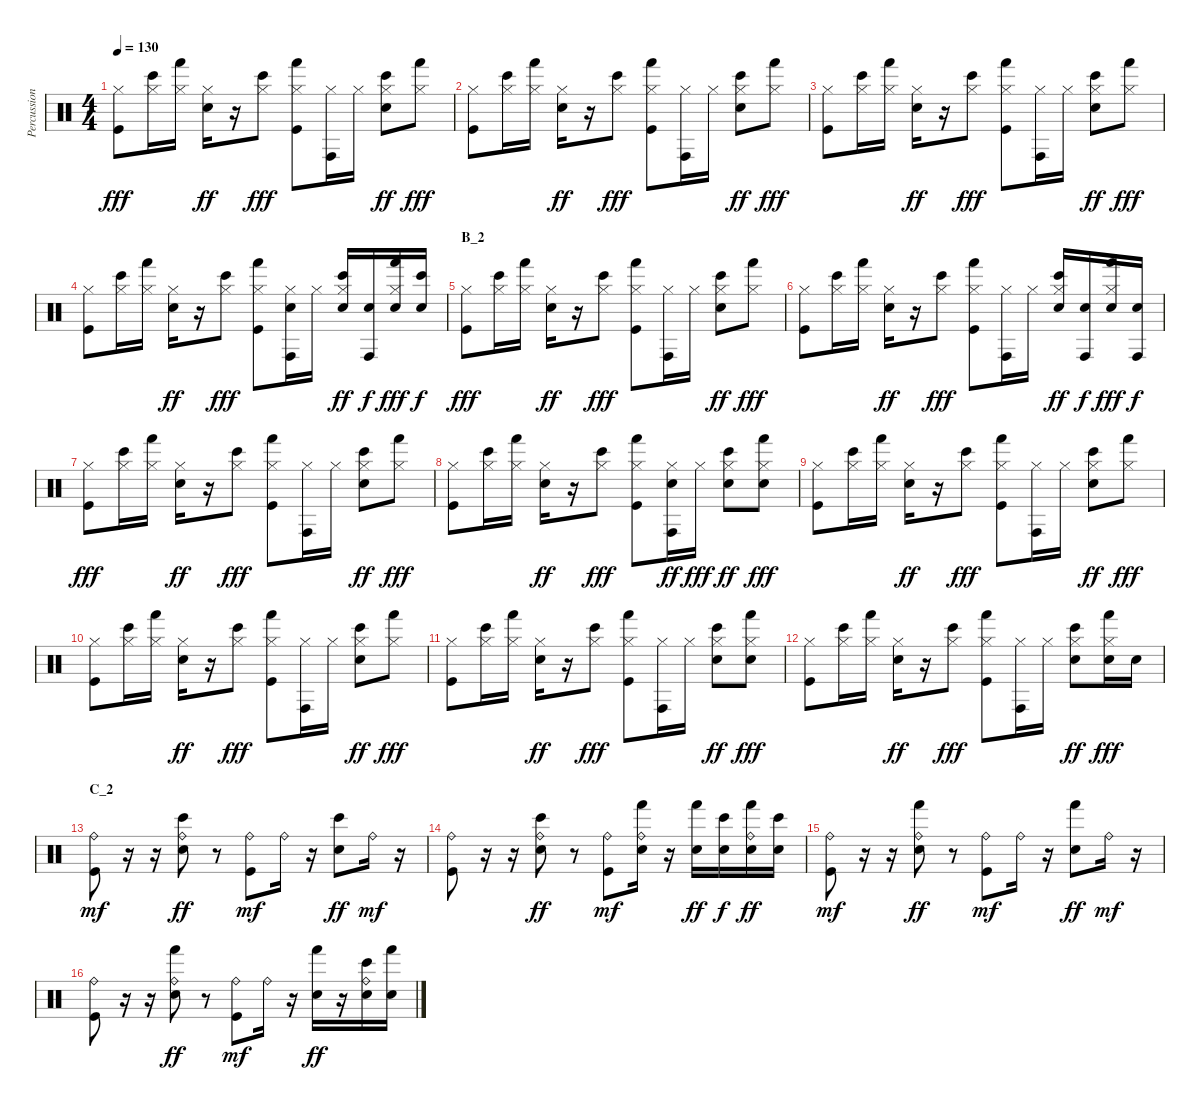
\track ("Percussion" "Percussion") {instrument percussion}
\staff {score}
\articulation defaults
\ts (4 4)
\tempo 130
\clef neutral
\ks c
("Hi-Hat (closed)" "Kick (hit)").8{dy fff} ("Hi-Hat (closed)" "Bongo High (hit)").16 ("Hi-Hat (closed)" "Hand (hit)").16 ("Hi-Hat (closed)" "Electric Snare (hit)").16{dy ff} r.16 ("Hi-Hat (closed)" "Bongo High (hit)").8{dy fff} ("Hi-Hat (closed)" "Hand (hit)" "Kick (hit)").8 ("Hi-Hat (closed)" "Conga high (hit)").16 "Hi-Hat (closed)".16 ("Hi-Hat (closed)" "Bongo High (hit)" "Electric Snare (hit)").8{dy ff} ("Hi-Hat (closed)" "Hand (hit)").8{dy fff} |
("Hi-Hat (closed)" "Kick (hit)").8 ("Hi-Hat (closed)" "Bongo High (hit)").16 ("Hi-Hat (closed)" "Hand (hit)").16 ("Hi-Hat (closed)" "Electric Snare (hit)").16{dy ff} r.16 ("Hi-Hat (closed)" "Bongo High (hit)").8{dy fff} ("Hi-Hat (closed)" "Hand (hit)" "Kick (hit)").8 ("Hi-Hat (closed)" "Conga high (hit)").16 "Hi-Hat (closed)".16 ("Hi-Hat (closed)" "Bongo High (hit)" "Electric Snare (hit)").8{dy ff} ("Hi-Hat (closed)" "Hand (hit)").8{dy fff} |
("Hi-Hat (closed)" "Kick (hit)").8 ("Hi-Hat (closed)" "Bongo High (hit)").16 ("Hi-Hat (closed)" "Hand (hit)").16 ("Hi-Hat (closed)" "Electric Snare (hit)").16{dy ff} r.16 ("Hi-Hat (closed)" "Bongo High (hit)").8{dy fff} ("Hi-Hat (closed)" "Hand (hit)" "Kick (hit)").8 ("Hi-Hat (closed)" "Conga high (hit)").16 "Hi-Hat (closed)".16 ("Hi-Hat (closed)" "Bongo High (hit)" "Electric Snare (hit)").8{dy ff} ("Hi-Hat (closed)" "Hand (hit)").8{dy fff} |
("Hi-Hat (closed)" "Kick (hit)").8 ("Hi-Hat (closed)" "Bongo High (hit)").16 ("Hi-Hat (closed)" "Hand (hit)").16 ("Hi-Hat (closed)" "Electric Snare (hit)").16{dy ff} r.16 ("Hi-Hat (closed)" "Bongo High (hit)").8{dy fff} ("Hi-Hat (closed)" "Hand (hit)" "Kick (hit)").8 ("Hi-Hat (closed)" "Conga high (hit)" "Electric Snare (hit)").16 "Hi-Hat (closed)".16 ("Hi-Hat (closed)" "Bongo High (hit)" "Electric Snare (hit)").16{dy ff} ("Conga high (hit)" "Electric Snare (hit)").16{dy f} ("Hi-Hat (closed)" "Hand (hit)" "Electric Snare (hit)").16{dy fff} ("Bongo High (hit)" "Electric Snare (hit)").16{dy f} |
\section ("" "B_2")
("Hi-Hat (closed)" "Kick (hit)").8{dy fff} ("Hi-Hat (closed)" "Bongo High (hit)").16 ("Hi-Hat (closed)" "Hand (hit)").16 ("Hi-Hat (closed)" "Electric Snare (hit)").16{dy ff} r.16 ("Hi-Hat (closed)" "Bongo High (hit)").8{dy fff} ("Hi-Hat (closed)" "Hand (hit)" "Kick (hit)").8 ("Hi-Hat (closed)" "Conga high (hit)").16 "Hi-Hat (closed)".16 ("Hi-Hat (closed)" "Bongo High (hit)" "Electric Snare (hit)").8{dy ff} ("Hi-Hat (closed)" "Hand (hit)").8{dy fff} |
("Hi-Hat (closed)" "Kick (hit)").8 ("Hi-Hat (closed)" "Bongo High (hit)").16 ("Hi-Hat (closed)" "Hand (hit)").16 ("Hi-Hat (closed)" "Electric Snare (hit)").16{dy ff} r.16 ("Hi-Hat (closed)" "Bongo High (hit)").8{dy fff} ("Hi-Hat (closed)" "Hand (hit)" "Kick (hit)").8 ("Hi-Hat (closed)" "Conga high (hit)").16 "Hi-Hat (closed)".16 ("Hi-Hat (closed)" "Bongo High (hit)" "Electric Snare (hit)").16{dy ff} ("Conga high (hit)" "Electric Snare (hit)").16{dy f} ("Hi-Hat (closed)" "Hand (hit)" "Electric Snare (hit)").16{dy fff} ("Conga high (hit)" "Electric Snare (hit)").16{dy f} |
("Hi-Hat (closed)" "Kick (hit)").8{dy fff} ("Hi-Hat (closed)" "Bongo High (hit)").16 ("Hi-Hat (closed)" "Hand (hit)").16 ("Hi-Hat (closed)" "Electric Snare (hit)").16{dy ff} r.16 ("Hi-Hat (closed)" "Bongo High (hit)").8{dy fff} ("Hi-Hat (closed)" "Hand (hit)" "Kick (hit)").8 ("Hi-Hat (closed)" "Conga high (hit)").16 "Hi-Hat (closed)".16 ("Hi-Hat (closed)" "Bongo High (hit)" "Electric Snare (hit)").8{dy ff} ("Hi-Hat (closed)" "Hand (hit)").8{dy fff} |
("Hi-Hat (closed)" "Kick (hit)").8 ("Hi-Hat (closed)" "Bongo High (hit)").16 ("Hi-Hat (closed)" "Hand (hit)").16 ("Hi-Hat (closed)" "Electric Snare (hit)").16{dy ff} r.16 ("Hi-Hat (closed)" "Bongo High (hit)").8{dy fff} ("Hi-Hat (closed)" "Hand (hit)" "Kick (hit)").8 ("Hi-Hat (closed)" "Conga high (hit)" "Electric Snare (hit)").16{dy ff} "Hi-Hat (closed)".16{dy fff} ("Hi-Hat (closed)" "Bongo High (hit)" "Electric Snare (hit)").8{dy ff} ("Hi-Hat (closed)" "Hand (hit)" "Electric Snare (hit)").8{dy fff} |
("Hi-Hat (closed)" "Kick (hit)").8 ("Hi-Hat (closed)" "Bongo High (hit)").16 ("Hi-Hat (closed)" "Hand (hit)").16 ("Hi-Hat (closed)" "Electric Snare (hit)").16{dy ff} r.16 ("Hi-Hat (closed)" "Bongo High (hit)").8{dy fff} ("Hi-Hat (closed)" "Hand (hit)" "Kick (hit)").8 ("Hi-Hat (closed)" "Conga high (hit)").16 "Hi-Hat (closed)".16 ("Hi-Hat (closed)" "Bongo High (hit)" "Electric Snare (hit)").8{dy ff} ("Hi-Hat (closed)" "Hand (hit)").8{dy fff} |
("Hi-Hat (closed)" "Kick (hit)").8 ("Hi-Hat (closed)" "Bongo High (hit)").16 ("Hi-Hat (closed)" "Hand (hit)").16 ("Hi-Hat (closed)" "Electric Snare (hit)").16{dy ff} r.16 ("Hi-Hat (closed)" "Bongo High (hit)").8{dy fff} ("Hi-Hat (closed)" "Hand (hit)" "Kick (hit)").8 ("Hi-Hat (closed)" "Conga high (hit)").16 "Hi-Hat (closed)".16 ("Hi-Hat (closed)" "Bongo High (hit)" "Electric Snare (hit)").8{dy ff} ("Hi-Hat (closed)" "Hand (hit)").8{dy fff} |
("Hi-Hat (closed)" "Kick (hit)").8 ("Hi-Hat (closed)" "Bongo High (hit)").16 ("Hi-Hat (closed)" "Hand (hit)").16 ("Hi-Hat (closed)" "Electric Snare (hit)").16{dy ff} r.16 ("Hi-Hat (closed)" "Bongo High (hit)").8{dy fff} ("Hi-Hat (closed)" "Hand (hit)" "Kick (hit)").8 ("Hi-Hat (closed)" "Conga high (hit)").16 "Hi-Hat (closed)".16 ("Hi-Hat (closed)" "Bongo High (hit)" "Electric Snare (hit)").8{dy ff} ("Hi-Hat (closed)" "Hand (hit)" "Electric Snare (hit)").8{dy fff} |
("Hi-Hat (closed)" "Kick (hit)").8 ("Hi-Hat (closed)" "Bongo High (hit)").16 ("Hi-Hat (closed)" "Hand (hit)").16 ("Hi-Hat (closed)" "Electric Snare (hit)").16{dy ff} r.16 ("Hi-Hat (closed)" "Bongo High (hit)").8{dy fff} ("Hi-Hat (closed)" "Hand (hit)" "Kick (hit)").8 ("Hi-Hat (closed)" "Conga high (hit)").16 "Hi-Hat (closed)".16 ("Hi-Hat (closed)" "Bongo High (hit)" "Electric Snare (hit)").8{dy ff} ("Hi-Hat (closed)" "Hand (hit)" "Electric Snare (hit)").16{dy fff} "Electric Snare (hit)".16 |
\section ("" "C_2")
("Ride (bell)" "Kick (hit)").8{dy mf} r.16 r.16 ("Ride (bell)" "Bongo High (hit)" "Electric Snare (hit)").8{dy ff} r.8 ("Ride (bell)" "Kick (hit)").8{dy mf} "Ride (bell)".16 r.16 ("Bongo High (hit)" "Electric Snare (hit)").8{dy ff} "Ride (bell)".16{dy mf} r.16 |
("Ride (bell)" "Kick (hit)").8 r.16 r.16 ("Ride (bell)" "Bongo High (hit)" "Electric Snare (hit)").8{dy ff} r.8 ("Ride (bell)" "Kick (hit)").8{dy mf} ("Ride (bell)" "Hand (hit)" "Electric Snare (hit)").16 r.16 ("Hand (hit)" "Electric Snare (hit)").16{dy ff} ("Bongo High (hit)" "Electric Snare (hit)").16{dy f} ("Ride (bell)" "Hand (hit)" "Electric Snare (hit)").16{dy ff} ("Bongo High (hit)" "Electric Snare (hit)").16 |
("Ride (bell)" "Kick (hit)").8{dy mf} r.16 r.16 ("Ride (bell)" "Hand (hit)" "Electric Snare (hit)").8{dy ff} r.8 ("Ride (bell)" "Kick (hit)").8{dy mf} "Ride (bell)".16 r.16 ("Hand (hit)" "Electric Snare (hit)").8{dy ff} "Ride (bell)".16{dy mf} r.16 |
("Ride (bell)" "Kick (hit)").8 r.16 r.16 ("Ride (bell)" "Hand (hit)" "Electric Snare (hit)").8{dy ff} r.8 ("Ride (bell)" "Kick (hit)").8{dy mf} "Ride (bell)".16 r.16 ("Hand (hit)" "Electric Snare (hit)").16{dy ff} r.16 ("Ride (bell)" "Bongo High (hit)" "Electric Snare (hit)").16 ("Hand (hit)" "Electric Snare (hit)").16
